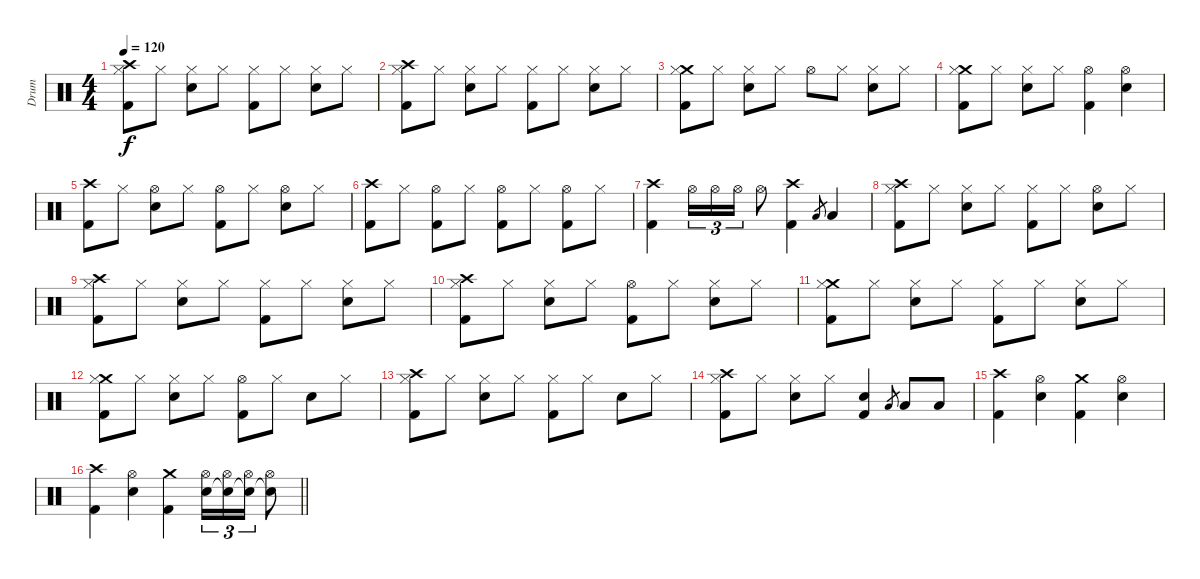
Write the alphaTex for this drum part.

\track ("Drum" "Drum") {instrument percussion}
\staff {score}
\articulation defaults
\ts (4 4)
\section ("" "")
\tempo 120
\clef neutral
\ks c
("Crash high (hit)" "Hi-Hat (closed)" "Kick (hit) 2").8{dy f} "Hi-Hat (closed)".8 ("Hi-Hat (closed)" "Snare (hit) 2").8 "Hi-Hat (closed)".8 ("Hi-Hat (closed)" "Kick (hit) 2").8 "Hi-Hat (closed)".8 ("Hi-Hat (closed)" "Snare (hit) 2").8 "Hi-Hat (closed)".8 |
("Crash high (hit)" "Hi-Hat (closed)" "Kick (hit) 2").8 "Hi-Hat (closed)".8 ("Hi-Hat (closed)" "Snare (hit) 2").8 "Hi-Hat (closed)".8 ("Hi-Hat (closed)" "Kick (hit) 2").8 "Hi-Hat (closed)".8 ("Hi-Hat (closed)" "Snare (hit) 2").8 "Hi-Hat (closed)".8 |
("Crash medium (hit)" "Hi-Hat (closed)" "Kick (hit) 2").8 "Hi-Hat (closed)".8 ("Hi-Hat (closed)" "Snare (hit) 2").8 "Hi-Hat (closed)".8 "Hi-Hat (open)".8 "Hi-Hat (closed)".8 ("Hi-Hat (closed)" "Snare (hit) 2").8 "Hi-Hat (closed)".8 |
("Crash medium (hit)" "Hi-Hat (closed)" "Kick (hit) 2").8 "Hi-Hat (closed)".8 ("Hi-Hat (closed)" "Snare (hit) 2").8 "Hi-Hat (closed)".8 ("Hi-Hat (open)" "Kick (hit) 2").4 ("Hi-Hat (open)" "Snare (hit) 2").4 |
("Crash high (hit)" "Kick (hit) 2").8 "Hi-Hat (closed)".8 ("Hi-Hat (open)" "Snare (hit) 2").8 "Hi-Hat (closed)".8 ("Hi-Hat (open)" "Kick (hit) 2").8 "Hi-Hat (closed)".8 ("Hi-Hat (open)" "Snare (hit) 2").8 "Hi-Hat (closed)".8 |
("Crash high (hit)" "Kick (hit) 2").8 "Hi-Hat (closed)".8 ("Hi-Hat (open)" "Kick (hit) 2").8 "Hi-Hat (closed)".8 ("Hi-Hat (open)" "Kick (hit) 2").8 "Hi-Hat (closed)".8 ("Hi-Hat (open)" "Kick (hit) 2").8 "Hi-Hat (closed)".8 |
("Crash high (hit)" "Kick (hit) 2").4 "Hi-Hat (open)".16{tu (3 2)} "Hi-Hat (open)".16{tu (3 2)} "Hi-Hat (open)".16{tu (3 2)} "Hi-Hat (open)".8 ("Crash high (hit)" "Kick (hit) 2").4 "Low Floor Tom (hit)".8{gr} "Low Floor Tom (hit)".4 |
("Crash high (hit)" "Hi-Hat (closed)" "Kick (hit) 2").8 "Hi-Hat (closed)".8 ("Hi-Hat (closed)" "Snare (hit) 2").8 "Hi-Hat (closed)".8 ("Hi-Hat (closed)" "Kick (hit) 2").8 "Hi-Hat (closed)".8 ("Hi-Hat (open)" "Snare (hit) 2").8 "Hi-Hat (closed)".8 |
("Crash high (hit)" "Hi-Hat (closed)" "Kick (hit) 2").8 "Hi-Hat (closed)".8 ("Hi-Hat (closed)" "Snare (hit) 2").8 "Hi-Hat (closed)".8 ("Hi-Hat (closed)" "Kick (hit) 2").8 "Hi-Hat (closed)".8 ("Hi-Hat (closed)" "Snare (hit) 2").8 "Hi-Hat (closed)".8 |
("Crash high (hit)" "Hi-Hat (closed)" "Kick (hit) 2").8 "Hi-Hat (closed)".8 ("Hi-Hat (closed)" "Snare (hit) 2").8 "Hi-Hat (closed)".8 ("Hi-Hat (open)" "Kick (hit) 2").8 "Hi-Hat (closed)".8 ("Hi-Hat (closed)" "Snare (hit) 2").8 "Hi-Hat (closed)".8 |
("Crash medium (hit)" "Hi-Hat (closed)" "Kick (hit) 2").8 "Hi-Hat (closed)".8 ("Hi-Hat (closed)" "Snare (hit) 2").8 "Hi-Hat (closed)".8 ("Hi-Hat (closed)" "Kick (hit) 2").8 "Hi-Hat (closed)".8 ("Hi-Hat (closed)" "Snare (hit) 2").8 "Hi-Hat (closed)".8 |
("Crash medium (hit)" "Hi-Hat (closed)" "Kick (hit) 2").8 "Hi-Hat (closed)".8 ("Hi-Hat (closed)" "Snare (hit) 2").8 "Hi-Hat (closed)".8 ("Hi-Hat (open)" "Kick (hit) 2").8 "Hi-Hat (closed)".8 "Snare (hit) 2".8 "Hi-Hat (closed)".8 |
("Crash high (hit)" "Hi-Hat (closed)" "Kick (hit) 2").8 "Hi-Hat (closed)".8 ("Hi-Hat (closed)" "Snare (hit) 2").8 "Hi-Hat (closed)".8 ("Hi-Hat (closed)" "Kick (hit) 2").8 "Hi-Hat (closed)".8 "Snare (hit) 2".8 "Hi-Hat (closed)".8 |
("Crash high (hit)" "Hi-Hat (closed)" "Kick (hit) 2").8 "Hi-Hat (closed)".8 ("Hi-Hat (closed)" "Snare (hit) 2").8 "Hi-Hat (closed)".8 ("Snare (hit) 2" "Kick (hit) 2").4 "Low Floor Tom (hit)".8{gr} "Low Floor Tom (hit)".8 "Low Floor Tom (hit)".8 |
("Crash high (hit)" "Kick (hit) 2").4 ("Hi-Hat (open)" "Snare (hit) 2").4 ("Crash medium (hit)" "Kick (hit) 2").4 ("Hi-Hat (open)" "Snare (hit) 2").4 |
\barLineRight lightlight
("Crash high (hit)" "Kick (hit) 2").4 ("Hi-Hat (open)" "Snare (hit) 2").4 ("Crash medium (hit)" "Kick (hit) 2").4 ("Hi-Hat (open)" "Snare (hit) 2").16{tu (3 2)} ("Hi-Hat (open)" "Snare (hit)"{t}).16{tu (3 2)} ("Hi-Hat (open)" "Snare (hit) 2"{t}).16{tu (3 2)} ("Hi-Hat (open)" "Snare (hit)"{t}).8
